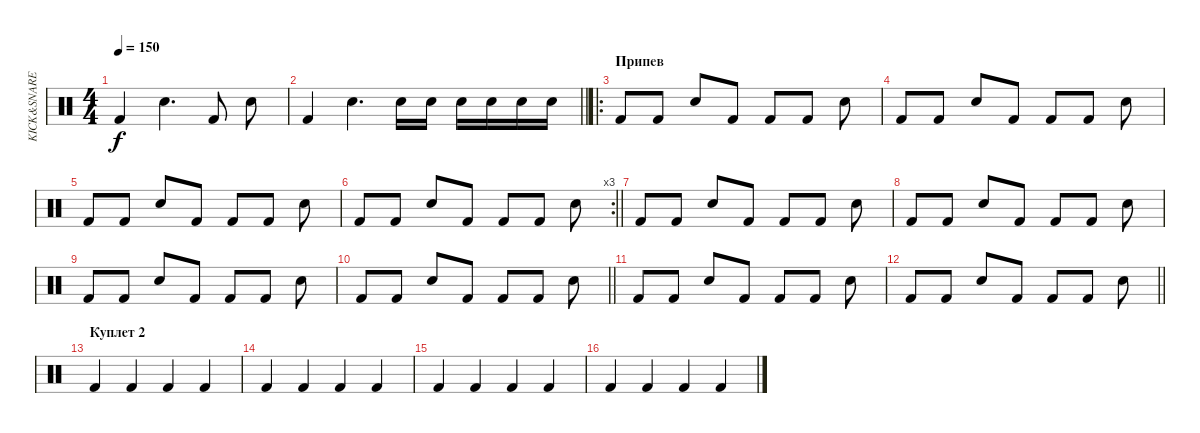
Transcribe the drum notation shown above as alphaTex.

\track ("KICK&SNARE" "KICK&SNARE") {instrument percussion}
\staff {score}
\articulation defaults
\ts (4 4)
\tempo 150
\clef neutral
\ks c "Kick (hit) 2".4{dy f} "Snare (hit) 2".4{d} "Kick (hit) 2".8 "Snare (hit) 2".8
|
\barLineRight lightlight "Kick (hit) 2".4 "Snare (hit) 2".4{d} "Snare (hit) 2".16 "Snare (hit) 2".16 "Snare (hit) 2".16 "Snare (hit) 2".16 "Snare (hit) 2".16 "Snare (hit) 2".16
|
\ro
\section ("" "Припев")
"Kick (hit) 2".8 "Kick (hit) 2".8 "Snare (hit) 2".8 "Kick (hit) 2".8 "Kick (hit) 2".8 "Kick (hit) 2".8 "Snare (hit) 2".8 |
"Kick (hit) 2".8 "Kick (hit) 2".8 "Snare (hit) 2".8 "Kick (hit) 2".8 "Kick (hit) 2".8 "Kick (hit) 2".8 "Snare (hit) 2".8 |
"Kick (hit) 2".8 "Kick (hit) 2".8 "Snare (hit) 2".8 "Kick (hit) 2".8 "Kick (hit) 2".8 "Kick (hit) 2".8 "Snare (hit) 2".8 |
\rc 3
\barLineRight lightlight "Kick (hit) 2".8 "Kick (hit) 2".8 "Snare (hit) 2".8 "Kick (hit) 2".8 "Kick (hit) 2".8 "Kick (hit) 2".8 "Snare (hit) 2".8
|
"Kick (hit) 2".8 "Kick (hit) 2".8 "Snare (hit) 2".8 "Kick (hit) 2".8 "Kick (hit) 2".8 "Kick (hit) 2".8 "Snare (hit) 2".8 |
"Kick (hit) 2".8 "Kick (hit) 2".8 "Snare (hit) 2".8 "Kick (hit) 2".8 "Kick (hit) 2".8 "Kick (hit) 2".8 "Snare (hit) 2".8 |
"Kick (hit) 2".8 "Kick (hit) 2".8 "Snare (hit) 2".8 "Kick (hit) 2".8 "Kick (hit) 2".8 "Kick (hit) 2".8 "Snare (hit) 2".8 |
\barLineRight lightlight "Kick (hit) 2".8 "Kick (hit) 2".8 "Snare (hit) 2".8 "Kick (hit) 2".8 "Kick (hit) 2".8 "Kick (hit) 2".8 "Snare (hit) 2".8
|
"Kick (hit) 2".8 "Kick (hit) 2".8 "Snare (hit) 2".8 "Kick (hit) 2".8 "Kick (hit) 2".8 "Kick (hit) 2".8 "Snare (hit) 2".8 |
\barLineRight lightlight "Kick (hit) 2".8 "Kick (hit) 2".8 "Snare (hit) 2".8 "Kick (hit) 2".8 "Kick (hit) 2".8 "Kick (hit) 2".8 "Snare (hit) 2".8
|
\section ("" "Куплет 2")
"Kick (hit) 2".4 "Kick (hit) 2".4 "Kick (hit) 2".4 "Kick (hit) 2".4 |
"Kick (hit) 2".4 "Kick (hit) 2".4 "Kick (hit) 2".4 "Kick (hit) 2".4 |
"Kick (hit) 2".4 "Kick (hit) 2".4 "Kick (hit) 2".4 "Kick (hit) 2".4 |
"Kick (hit) 2".4 "Kick (hit) 2".4 "Kick (hit) 2".4 "Kick (hit) 2".4
